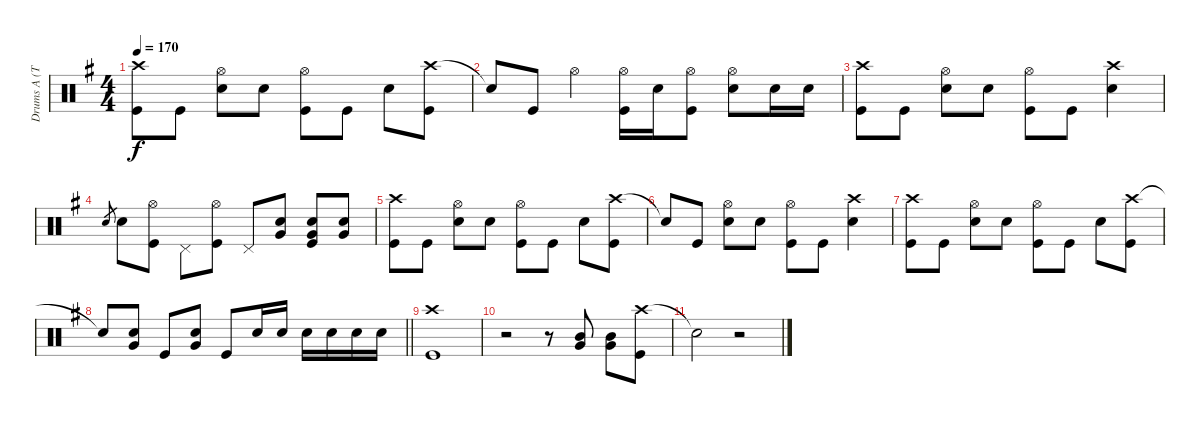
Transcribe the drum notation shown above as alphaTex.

\track ("Drums A (Tainaka Ritsu)" "Drums A (T") {instrument percussion}
\staff {score}
\articulation defaults
\ts (4 4)
\tempo 170
\clef neutral
\ks g
("Crash high (hit)" "Kick (hit)").8{dy f} "Kick (hit)".8 ("Hi-Hat (open)" "Snare (hit) 2").8 "Snare (hit) 2".8 ("Hi-Hat (open)" "Kick (hit)").8 "Kick (hit)".8 "Snare (hit) 2".8 ("Crash high (hit)" "Kick (hit)").8 |
"Snare (hit)"{t}.8 "Kick (hit)".8 "Hi-Hat (open)".4 ("Hi-Hat (open)" "Kick (hit)").16 "Snare (hit) 2".16 ("Hi-Hat (open)" "Kick (hit)").8 ("Hi-Hat (open)" "Snare (hit) 2").8 "Snare (hit) 2".16 "Snare (hit) 2".16 |
("Crash high (hit)" "Kick (hit)").8 "Kick (hit)".8 ("Hi-Hat (open)" "Snare (hit) 2").8 "Snare (hit) 2".8 ("Hi-Hat (open)" "Kick (hit)").8 "Kick (hit)".8 ("Crash high (hit)" "Snare (hit) 2").4 |
"Snare (hit) 2".8{gr} "Snare (hit) 2".8 ("Hi-Hat (open)" "Kick (hit)").8 "Pedal Hi-Hat (hit)".8 ("Hi-Hat (open)" "Kick (hit)").8 "Pedal Hi-Hat (hit)".8 ("Snare (hit) 2" "Very Low Tom (hit)").8 ("Snare (hit) 2" "Very Low Tom (hit)" "Kick (hit)").8 ("Snare (hit) 2" "Very Low Tom (hit)").8 |
("Crash high (hit)" "Kick (hit)").8 "Kick (hit)".8 ("Hi-Hat (open)" "Snare (hit) 2").8 "Snare (hit) 2".8 ("Hi-Hat (open)" "Kick (hit)").8 "Kick (hit)".8 "Snare (hit) 2".8 ("Crash high (hit)" "Kick (hit)").8 |
"Snare (hit)"{t}.8 "Kick (hit)".8 ("Hi-Hat (open)" "Snare (hit) 2").8 "Snare (hit) 2".8 ("Hi-Hat (open)" "Kick (hit)").8 "Kick (hit)".8 ("Crash high (hit)" "Snare (hit) 2").4 |
("Crash high (hit)" "Kick (hit)").8 "Kick (hit)".8 ("Hi-Hat (open)" "Snare (hit) 2").8 "Snare (hit) 2".8 ("Hi-Hat (open)" "Kick (hit)").8 "Kick (hit)".8 "Snare (hit) 2".8 ("Crash high (hit)" "Kick (hit)").8 |
\barLineRight lightlight "Snare (hit)"{t}.8
("Snare (hit) 2" "Very Low Tom (hit)").8 "Kick (hit)".8 ("Snare (hit) 2" "Very Low Tom (hit)").8 "Kick (hit)".8 "Snare (hit) 2".16 "Snare (hit) 2".16 "Snare (hit) 2".16 "Snare (hit) 2".16 "Snare (hit) 2".16 "Snare (hit) 2".16 |
("Crash high (hit)" "Kick (hit)").1 |
r.2 r.8 ("Mid Tom (hit)" "Very Low Tom (hit)").8 ("Mid Tom (hit)" "Very Low Tom (hit)").8 ("Crash high (hit)" "Kick (hit)").8 |
"Snare (hit)"{t}.2 r.2
